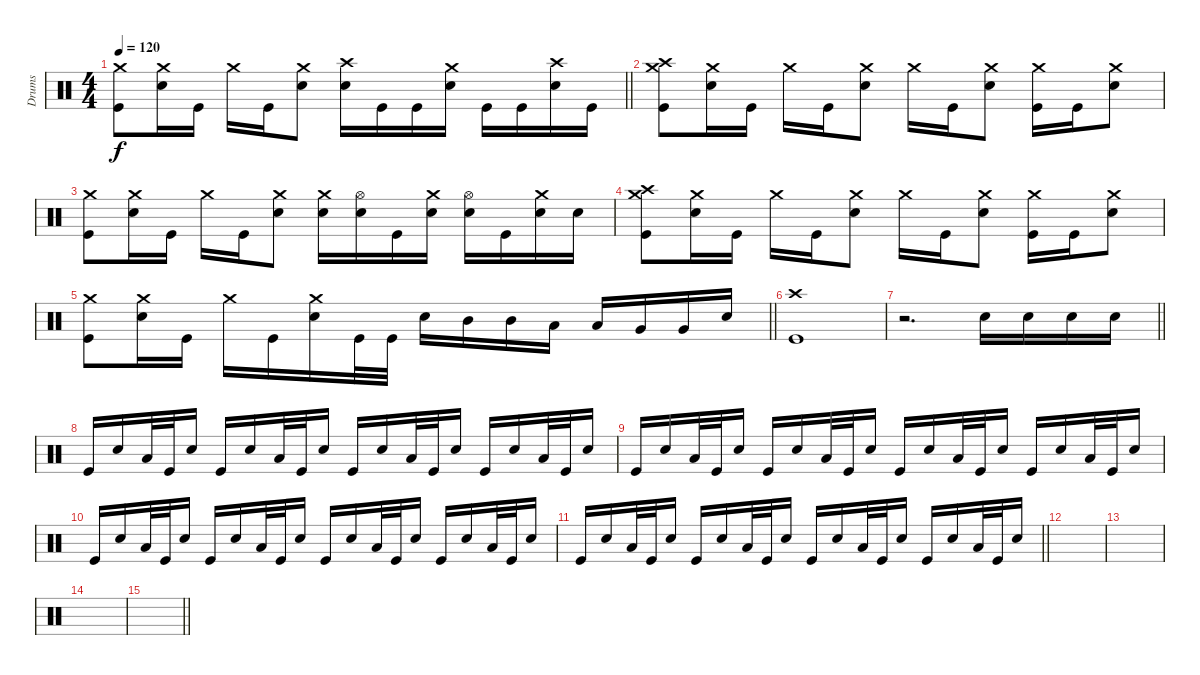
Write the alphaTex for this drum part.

\track ("Drums" "Drums") {instrument percussion}
\staff
\articulation defaults
\ts (4 4)
\tempo 120
\clef neutral
\barLineRight lightlight
\ks c
("Crash medium (hit)" "Kick (hit)").8{dy f} ("Crash medium (hit)" "Electric Snare (hit)").16 "Kick (hit)".16 "Crash medium (hit)".16 "Kick (hit)".16 ("Crash medium (hit)" "Electric Snare (hit)").8 ("Crash high (hit)" "Electric Snare (hit)").16 "Kick (hit)".16 "Kick (hit)".16 ("Crash medium (hit)" "Electric Snare (hit)").16 "Kick (hit)".16 "Kick (hit)".16 ("Crash high (hit)" "Electric Snare (hit)").16 "Kick (hit)".16 |
("Crash high (hit)" "Crash medium (hit)" "Kick (hit)").8 ("Crash medium (hit)" "Electric Snare (hit)").16 "Kick (hit)".16 "Crash medium (hit)".16 "Kick (hit)".16 ("Crash medium (hit)" "Electric Snare (hit)").8 "Crash medium (hit)".16 "Kick (hit)".16 ("Crash medium (hit)" "Electric Snare (hit)").8 ("Crash medium (hit)" "Kick (hit)").16 "Kick (hit)".16 ("Crash medium (hit)" "Electric Snare (hit)").8 |
("Crash medium (hit)" "Kick (hit)").8 ("Crash medium (hit)" "Electric Snare (hit)").16 "Kick (hit)".16 "Crash medium (hit)".16 "Kick (hit)".16 ("Crash medium (hit)" "Electric Snare (hit)").8 ("Crash medium (hit)" "Electric Snare (hit)").16 ("Hi-Hat (open)" "Electric Snare (hit)").16 "Kick (hit)".16 ("Crash medium (hit)" "Electric Snare (hit)").16 ("Hi-Hat (open)" "Electric Snare (hit)").16 "Kick (hit)".16 ("Crash medium (hit)" "Electric Snare (hit)").16 "Electric Snare (hit)".16 |
("Crash high (hit)" "Crash medium (hit)" "Kick (hit)").8 ("Crash medium (hit)" "Electric Snare (hit)").16 "Kick (hit)".16 "Crash medium (hit)".16 "Kick (hit)".16 ("Crash medium (hit)" "Electric Snare (hit)").8 "Crash medium (hit)".16 "Kick (hit)".16 ("Crash medium (hit)" "Electric Snare (hit)").8 ("Crash medium (hit)" "Kick (hit)").16 "Kick (hit)".16 ("Crash medium (hit)" "Electric Snare (hit)").8 |
\barLineRight lightlight
("Crash medium (hit)" "Kick (hit)").8 ("Crash medium (hit)" "Electric Snare (hit)").16 "Kick (hit)".16 "Crash medium (hit)".16 "Kick (hit)".16 ("Crash medium (hit)" "Electric Snare (hit)").16 "Kick (hit)".32 "Kick (hit)".32 "Electric Snare (hit)".16 "Mid Tom (hit)".16 "Mid Tom (hit)".16 "Low Tom (hit)".16 "Low Tom (hit)".16 "Very Low Tom (hit)".16 "Very Low Tom (hit)".16 "Electric Snare (hit)".16 |
("Crash high (hit)" "Kick (hit)").1 |
\barLineRight lightlight
r.2{d} "Electric Snare (hit)".16 "Electric Snare (hit)".16 "Electric Snare (hit)".16 "Electric Snare (hit)".16 |
\section ("" "")
"Kick (hit)".16 "Electric Snare (hit)".16 "Low Floor Tom (hit)".32 "Kick (hit)".32 "Electric Snare (hit)".16 "Kick (hit)".16 "Electric Snare (hit)".16 "Low Floor Tom (hit)".32 "Kick (hit)".32 "Electric Snare (hit)".16 "Kick (hit)".16 "Electric Snare (hit)".16 "Low Floor Tom (hit)".32 "Kick (hit)".32 "Electric Snare (hit)".16 "Kick (hit)".16 "Electric Snare (hit)".16 "Low Floor Tom (hit)".32 "Kick (hit)".32 "Electric Snare (hit)".16 |
"Kick (hit)".16 "Electric Snare (hit)".16 "Low Floor Tom (hit)".32 "Kick (hit)".32 "Electric Snare (hit)".16 "Kick (hit)".16 "Electric Snare (hit)".16 "Low Floor Tom (hit)".32 "Kick (hit)".32 "Electric Snare (hit)".16 "Kick (hit)".16 "Electric Snare (hit)".16 "Low Floor Tom (hit)".32 "Kick (hit)".32 "Electric Snare (hit)".16 "Kick (hit)".16 "Electric Snare (hit)".16 "Low Floor Tom (hit)".32 "Kick (hit)".32 "Electric Snare (hit)".16 |
"Kick (hit)".16 "Electric Snare (hit)".16 "Low Floor Tom (hit)".32 "Kick (hit)".32 "Electric Snare (hit)".16 "Kick (hit)".16 "Electric Snare (hit)".16 "Low Floor Tom (hit)".32 "Kick (hit)".32 "Electric Snare (hit)".16 "Kick (hit)".16 "Electric Snare (hit)".16 "Low Floor Tom (hit)".32 "Kick (hit)".32 "Electric Snare (hit)".16 "Kick (hit)".16 "Electric Snare (hit)".16 "Low Floor Tom (hit)".32 "Kick (hit)".32 "Electric Snare (hit)".16 |
\barLineRight lightlight "Kick (hit)".16 "Electric Snare (hit)".16 "Low Floor Tom (hit)".32 "Kick (hit)".32 "Electric Snare (hit)".16 "Kick (hit)".16 "Electric Snare (hit)".16 "Low Floor Tom (hit)".32 "Kick (hit)".32 "Electric Snare (hit)".16 "Kick (hit)".16 "Electric Snare (hit)".16 "Low Floor Tom (hit)".32 "Kick (hit)".32 "Electric Snare (hit)".16 "Kick (hit)".16 "Electric Snare (hit)".16 "Low Floor Tom (hit)".32 "Kick (hit)".32 "Electric Snare (hit)".16
|
|
|
|
\barLineRight lightlight
